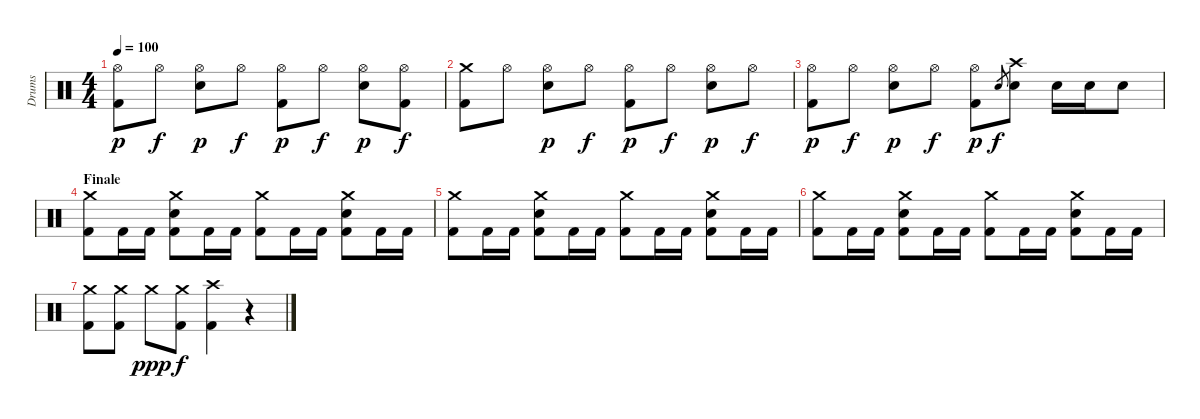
\track ("Drums" "Drums") {instrument percussion}
\staff {score}
\articulation defaults
\ts (4 4)
\tempo 100
\clef neutral
\ks c
("Hi-Hat (open)" "Kick (hit) 2").8{dy p} "Hi-Hat (open)".8{dy f} ("Hi-Hat (open)" "Snare (hit) 2").8{dy p} "Hi-Hat (open)".8{dy f} ("Hi-Hat (open)" "Kick (hit) 2").8{dy p} "Hi-Hat (open)".8{dy f} ("Hi-Hat (open)" "Snare (hit) 2").8{dy p} ("Hi-Hat (open)" "Kick (hit) 2").8{dy f} |
("Crash medium (hit)" "Kick (hit) 2").8 "Hi-Hat (open)".8 ("Hi-Hat (open)" "Snare (hit) 2").8{dy p} "Hi-Hat (open)".8{dy f} ("Hi-Hat (open)" "Kick (hit) 2").8{dy p} "Hi-Hat (open)".8{dy f} ("Hi-Hat (open)" "Snare (hit) 2").8{dy p} "Hi-Hat (open)".8{dy f} |
("Hi-Hat (open)" "Kick (hit) 2").8{dy p} "Hi-Hat (open)".8{dy f} ("Hi-Hat (open)" "Snare (hit) 2").8{dy p} "Hi-Hat (open)".8{dy f} ("Hi-Hat (open)" "Kick (hit) 2").8{dy p} "Snare (hit) 2".8{gr dy f} ("Crash high (hit)" "Snare (hit) 2").8 "Snare (hit) 2".16 "Snare (hit) 2".16 "Snare (hit) 2".8 |
\section ("" "Finale")
("Crash medium (hit)" "Kick (hit) 2").8 "Kick (hit) 2".16 "Kick (hit) 2".16 ("Crash medium (hit)" "Snare (hit) 2" "Kick (hit) 2").8 "Kick (hit) 2".16 "Kick (hit) 2".16 ("Crash medium (hit)" "Kick (hit) 2").8 "Kick (hit) 2".16 "Kick (hit) 2".16 ("Crash medium (hit)" "Snare (hit) 2" "Kick (hit) 2").8 "Kick (hit) 2".16 "Kick (hit) 2".16 |
("Crash medium (hit)" "Kick (hit) 2").8 "Kick (hit) 2".16 "Kick (hit) 2".16 ("Crash medium (hit)" "Snare (hit) 2" "Kick (hit) 2").8 "Kick (hit) 2".16 "Kick (hit) 2".16 ("Crash medium (hit)" "Kick (hit) 2").8 "Kick (hit) 2".16 "Kick (hit) 2".16 ("Crash medium (hit)" "Snare (hit) 2" "Kick (hit) 2").8 "Kick (hit) 2".16 "Kick (hit) 2".16 |
("Crash medium (hit)" "Kick (hit) 2").8 "Kick (hit) 2".16 "Kick (hit) 2".16 ("Crash medium (hit)" "Snare (hit) 2" "Kick (hit) 2").8 "Kick (hit) 2".16 "Kick (hit) 2".16 ("Crash medium (hit)" "Kick (hit) 2").8 "Kick (hit) 2".16 "Kick (hit) 2".16 ("Crash medium (hit)" "Snare (hit) 2" "Kick (hit) 2").8 "Kick (hit) 2".16 "Kick (hit) 2".16 |
("Crash medium (hit)" "Kick (hit) 2").8 ("Crash medium (hit)" "Kick (hit) 2").8 "Crash medium (hit)".8{dy ppp} ("Crash medium (hit)" "Kick (hit) 2").8{dy f} ("Crash high (hit)" "Kick (hit) 2").4 r.4
